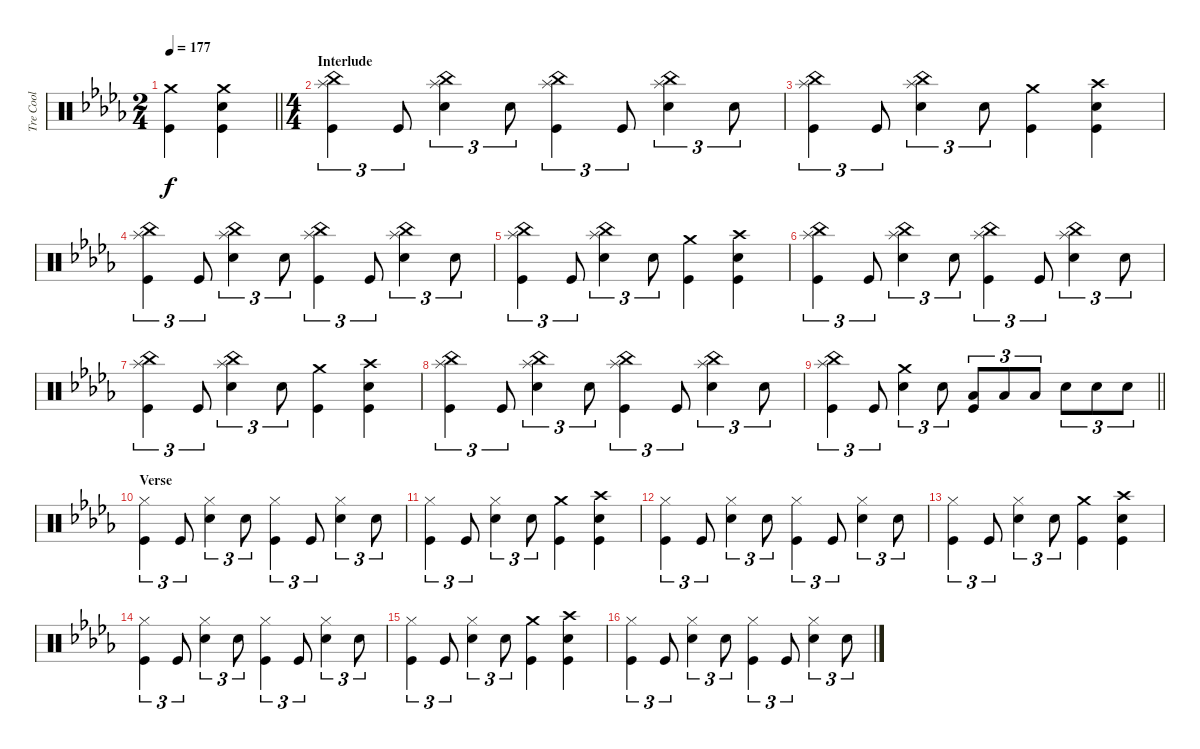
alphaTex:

\track ("Tre Cool" "Tre Cool") {instrument percussion}
\staff {score}
\articulation defaults
\ts (2 4)
\tempo 177
\clef neutral
\barLineRight lightlight
\ks db
("Crash medium (hit)" "Kick (hit)").4{dy f} ("Crash medium (hit)" "Electric Snare (hit)" "Kick (hit)").4 |
\ts (4 4)
\section ("" "Interlude")
("China (hit)" "Splash (hit)" "Kick (hit)").4{tu (3 2)} "Kick (hit)".8{tu (3 2)} ("China (hit)" "Splash (hit)" "Electric Snare (hit)").4{tu (3 2)} "Electric Snare (hit)".8{tu (3 2)} ("China (hit)" "Splash (hit)" "Kick (hit)").4{tu (3 2)} "Kick (hit)".8{tu (3 2)} ("China (hit)" "Splash (hit)" "Electric Snare (hit)").4{tu (3 2)} "Electric Snare (hit)".8{tu (3 2)} |
("China (hit)" "Splash (hit)" "Kick (hit)").4{tu (3 2)} "Kick (hit)".8{tu (3 2)} ("China (hit)" "Splash (hit)" "Electric Snare (hit)").4{tu (3 2)} "Electric Snare (hit)".8{tu (3 2)} ("Crash medium (hit)" "Kick (hit)").4 ("Crash high (hit)" "Electric Snare (hit)" "Kick (hit)").4 |
("China (hit)" "Splash (hit)" "Kick (hit)").4{tu (3 2)} "Kick (hit)".8{tu (3 2)} ("China (hit)" "Splash (hit)" "Electric Snare (hit)").4{tu (3 2)} "Electric Snare (hit)".8{tu (3 2)} ("China (hit)" "Splash (hit)" "Kick (hit)").4{tu (3 2)} "Kick (hit)".8{tu (3 2)} ("China (hit)" "Splash (hit)" "Electric Snare (hit)").4{tu (3 2)} "Electric Snare (hit)".8{tu (3 2)} |
("China (hit)" "Splash (hit)" "Kick (hit)").4{tu (3 2)} "Kick (hit)".8{tu (3 2)} ("China (hit)" "Splash (hit)" "Electric Snare (hit)").4{tu (3 2)} "Electric Snare (hit)".8{tu (3 2)} ("Crash medium (hit)" "Kick (hit)").4 ("Crash high (hit)" "Electric Snare (hit)" "Kick (hit)").4 |
("China (hit)" "Splash (hit)" "Kick (hit)").4{tu (3 2)} "Kick (hit)".8{tu (3 2)} ("China (hit)" "Splash (hit)" "Electric Snare (hit)").4{tu (3 2)} "Electric Snare (hit)".8{tu (3 2)} ("China (hit)" "Splash (hit)" "Kick (hit)").4{tu (3 2)} "Kick (hit)".8{tu (3 2)} ("China (hit)" "Splash (hit)" "Electric Snare (hit)").4{tu (3 2)} "Electric Snare (hit)".8{tu (3 2)} |
("China (hit)" "Splash (hit)" "Kick (hit)").4{tu (3 2)} "Kick (hit)".8{tu (3 2)} ("China (hit)" "Splash (hit)" "Electric Snare (hit)").4{tu (3 2)} "Electric Snare (hit)".8{tu (3 2)} ("Crash medium (hit)" "Kick (hit)").4 ("Crash high (hit)" "Electric Snare (hit)" "Kick (hit)").4 |
("China (hit)" "Splash (hit)" "Kick (hit)").4{tu (3 2)} "Kick (hit)".8{tu (3 2)} ("China (hit)" "Splash (hit)" "Electric Snare (hit)").4{tu (3 2)} "Electric Snare (hit)".8{tu (3 2)} ("China (hit)" "Splash (hit)" "Kick (hit)").4{tu (3 2)} "Kick (hit)".8{tu (3 2)} ("China (hit)" "Splash (hit)" "Electric Snare (hit)").4{tu (3 2)} "Electric Snare (hit)".8{tu (3 2)} |
\barLineRight lightlight
("China (hit)" "Splash (hit)" "Kick (hit)").4{tu (3 2)} "Kick (hit)".8{tu (3 2)} ("Crash medium (hit)" "Electric Snare (hit)").4{tu (3 2)} "Electric Snare (hit)".8{tu (3 2)} ("Low Tom (hit)" "Kick (hit)").8{tu (3 2)} "Low Tom (hit)".8{tu (3 2)} "Low Tom (hit)".8{tu (3 2)} "Electric Snare (hit)".8{tu (3 2)} "Electric Snare (hit)".8{tu (3 2)} "Electric Snare (hit)".8{tu (3 2)} |
\section ("" "Verse")
("Hi-Hat (closed)" "Kick (hit)").4{tu (3 2)} "Kick (hit)".8{tu (3 2)} ("Hi-Hat (closed)" "Electric Snare (hit)").4{tu (3 2)} "Electric Snare (hit)".8{tu (3 2)} ("Hi-Hat (closed)" "Kick (hit)").4{tu (3 2)} "Kick (hit)".8{tu (3 2)} ("Hi-Hat (closed)" "Electric Snare (hit)").4{tu (3 2)} "Electric Snare (hit)".8{tu (3 2)} |
("Hi-Hat (closed)" "Kick (hit)").4{tu (3 2)} "Kick (hit)".8{tu (3 2)} ("Hi-Hat (closed)" "Electric Snare (hit)").4{tu (3 2)} "Electric Snare (hit)".8{tu (3 2)} ("Crash medium (hit)" "Kick (hit)").4 ("Crash high (hit)" "Electric Snare (hit)" "Kick (hit)").4 |
("Hi-Hat (closed)" "Kick (hit)").4{tu (3 2)} "Kick (hit)".8{tu (3 2)} ("Hi-Hat (closed)" "Electric Snare (hit)").4{tu (3 2)} "Electric Snare (hit)".8{tu (3 2)} ("Hi-Hat (closed)" "Kick (hit)").4{tu (3 2)} "Kick (hit)".8{tu (3 2)} ("Hi-Hat (closed)" "Electric Snare (hit)").4{tu (3 2)} "Electric Snare (hit)".8{tu (3 2)} |
("Hi-Hat (closed)" "Kick (hit)").4{tu (3 2)} "Kick (hit)".8{tu (3 2)} ("Hi-Hat (closed)" "Electric Snare (hit)").4{tu (3 2)} "Electric Snare (hit)".8{tu (3 2)} ("Crash medium (hit)" "Kick (hit)").4 ("Crash high (hit)" "Electric Snare (hit)" "Kick (hit)").4 |
("Hi-Hat (closed)" "Kick (hit)").4{tu (3 2)} "Kick (hit)".8{tu (3 2)} ("Hi-Hat (closed)" "Electric Snare (hit)").4{tu (3 2)} "Electric Snare (hit)".8{tu (3 2)} ("Hi-Hat (closed)" "Kick (hit)").4{tu (3 2)} "Kick (hit)".8{tu (3 2)} ("Hi-Hat (closed)" "Electric Snare (hit)").4{tu (3 2)} "Electric Snare (hit)".8{tu (3 2)} |
("Hi-Hat (closed)" "Kick (hit)").4{tu (3 2)} "Kick (hit)".8{tu (3 2)} ("Hi-Hat (closed)" "Electric Snare (hit)").4{tu (3 2)} "Electric Snare (hit)".8{tu (3 2)} ("Crash medium (hit)" "Kick (hit)").4 ("Crash high (hit)" "Electric Snare (hit)" "Kick (hit)").4 |
("Hi-Hat (closed)" "Kick (hit)").4{tu (3 2)} "Kick (hit)".8{tu (3 2)} ("Hi-Hat (closed)" "Electric Snare (hit)").4{tu (3 2)} "Electric Snare (hit)".8{tu (3 2)} ("Hi-Hat (closed)" "Kick (hit)").4{tu (3 2)} "Kick (hit)".8{tu (3 2)} ("Hi-Hat (closed)" "Electric Snare (hit)").4{tu (3 2)} "Electric Snare (hit)".8{tu (3 2)}
